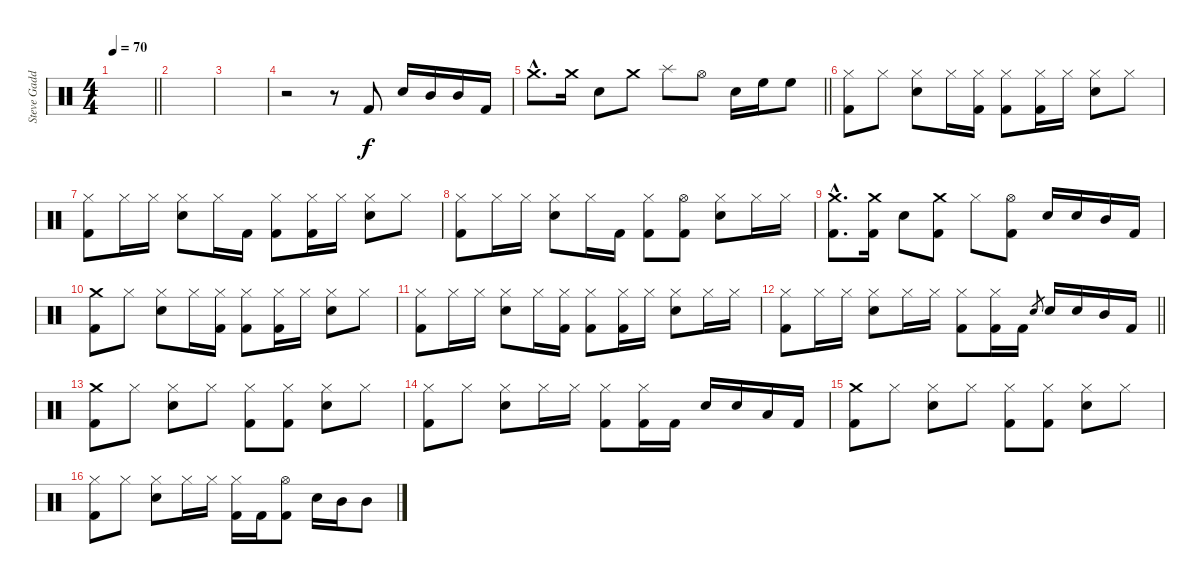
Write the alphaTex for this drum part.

\track ("Steve Gadd Drums" "Steve Gadd") {instrument percussion}
\staff {score}
\articulation defaults
\ts (4 4)
\tempo 70
\clef neutral
\barLineRight lightlight
\ks c
|
|
|
r.2 r.8 "Kick (hit) 2".8 "Snare (hit) 2".16 "Mid Tom (hit)".16 "Mid Tom (hit)".16 "Kick (hit) 2".16 |
\barLineRight lightlight "Crash medium (hit)"{hac}.8{d} "Crash medium (hit)".16 "Snare (hit) 2".8 "Crash medium (hit)".8 "Splash (hit)".8 "Hi-Hat (open)".8 "Snare (hit) 2".16 "High Floor Tom (hit)".16 "High Floor Tom (hit)".8
|
("Hi-Hat (closed)" "Kick (hit) 2").8 "Hi-Hat (closed)".8 ("Hi-Hat (closed)" "Snare (hit) 2").8 "Hi-Hat (closed)".16 ("Hi-Hat (closed)" "Kick (hit) 2").16 ("Hi-Hat (closed)" "Kick (hit) 2").8 ("Hi-Hat (closed)" "Kick (hit) 2").16 "Hi-Hat (closed)".16 ("Hi-Hat (closed)" "Snare (hit) 2").8 "Hi-Hat (closed)".8 |
("Hi-Hat (closed)" "Kick (hit) 2").8 "Hi-Hat (closed)".16 "Hi-Hat (closed)".16 ("Hi-Hat (closed)" "Snare (hit) 2").8 "Hi-Hat (closed)".16 "Kick (hit) 2".16 ("Hi-Hat (closed)" "Kick (hit) 2").8 ("Hi-Hat (closed)" "Kick (hit) 2").16 "Hi-Hat (closed)".16 ("Hi-Hat (closed)" "Snare (hit) 2").8 "Hi-Hat (closed)".8 |
("Hi-Hat (closed)" "Kick (hit) 2").8 "Hi-Hat (closed)".16 "Hi-Hat (closed)".16 ("Hi-Hat (closed)" "Snare (hit) 2").8 "Hi-Hat (closed)".16 "Kick (hit) 2".16 ("Hi-Hat (closed)" "Kick (hit) 2").8 ("Hi-Hat (open)" "Kick (hit) 2").8 ("Hi-Hat (closed)" "Snare (hit) 2").8 "Hi-Hat (closed)".16 "Hi-Hat (closed)".16 |
("Crash medium (hit)"{hac} "Kick (hit) 2"{hac}).8{d} ("Crash medium (hit)" "Kick (hit) 2").16 "Snare (hit) 2".8 ("Crash medium (hit)" "Kick (hit) 2").8 "Hi-Hat (closed)".8 ("Hi-Hat (open)" "Kick (hit) 2").8 "Snare (hit) 2".16 "Snare (hit) 2".16 "Mid Tom (hit)".16 "Kick (hit) 2".16 |
("Crash medium (hit)" "Kick (hit) 2").8 "Hi-Hat (closed)".8 ("Hi-Hat (closed)" "Snare (hit) 2").8 "Hi-Hat (closed)".16 ("Hi-Hat (closed)" "Kick (hit) 2").16 ("Hi-Hat (closed)" "Kick (hit) 2").8 ("Hi-Hat (closed)" "Kick (hit) 2").16 "Hi-Hat (closed)".16 ("Hi-Hat (closed)" "Snare (hit) 2").8 "Hi-Hat (closed)".8 |
("Hi-Hat (closed)" "Kick (hit) 2").8 "Hi-Hat (closed)".16 "Hi-Hat (closed)".16 ("Hi-Hat (closed)" "Snare (hit) 2").8 "Hi-Hat (closed)".16 ("Hi-Hat (closed)" "Kick (hit) 2").16 ("Hi-Hat (closed)" "Kick (hit) 2").8 ("Hi-Hat (closed)" "Kick (hit) 2").16 "Hi-Hat (closed)".16 ("Hi-Hat (closed)" "Snare (hit) 2").8 "Hi-Hat (closed)".16 "Hi-Hat (closed)".16 |
\barLineRight lightlight
("Hi-Hat (closed)" "Kick (hit) 2").8 "Hi-Hat (closed)".16 "Hi-Hat (closed)".16 ("Hi-Hat (closed)" "Snare (hit) 2").8 "Hi-Hat (closed)".16 "Hi-Hat (closed)".16 ("Hi-Hat (closed)" "Kick (hit) 2").8 ("Hi-Hat (closed)" "Kick (hit) 2").16 "Kick (hit) 2".16 "Snare (hit) 2".8{gr} "Snare (hit) 2".16 "Snare (hit) 2".16 "Mid Tom (hit)".16 "Kick (hit) 2".16 |
("Crash medium (hit)" "Kick (hit) 2").8 "Hi-Hat (closed)".8 ("Hi-Hat (closed)" "Snare (hit) 2").8 "Hi-Hat (closed)".8 ("Hi-Hat (closed)" "Kick (hit) 2").8 ("Hi-Hat (closed)" "Kick (hit) 2").8 ("Hi-Hat (closed)" "Snare (hit) 2").8 "Hi-Hat (closed)".8 |
("Hi-Hat (closed)" "Kick (hit) 2").8 "Hi-Hat (closed)".8 ("Hi-Hat (closed)" "Snare (hit) 2").8 "Hi-Hat (closed)".16 "Hi-Hat (closed)".16 ("Hi-Hat (closed)" "Kick (hit) 2").8 ("Hi-Hat (closed)" "Kick (hit) 2").16 "Kick (hit) 2".16 "Snare (hit) 2".16 "Snare (hit) 2".16 "Low Tom (hit)".16 "Kick (hit) 2".16 |
("Crash medium (hit)" "Kick (hit) 2").8 "Hi-Hat (closed)".8 ("Hi-Hat (closed)" "Snare (hit) 2").8 "Hi-Hat (closed)".8 ("Hi-Hat (closed)" "Kick (hit) 2").8 ("Hi-Hat (closed)" "Kick (hit) 2").8 ("Hi-Hat (closed)" "Snare (hit) 2").8 "Hi-Hat (closed)".8 |
("Hi-Hat (closed)" "Kick (hit) 2").8 "Hi-Hat (closed)".8 ("Hi-Hat (closed)" "Snare (hit) 2").8 "Hi-Hat (closed)".16 "Hi-Hat (closed)".16 ("Hi-Hat (closed)" "Kick (hit) 2").16 "Kick (hit) 2".16 ("Hi-Hat (open)" "Kick (hit) 2").8 "Snare (hit) 2".16 "Mid Tom (hit)".16 "Mid Tom (hit)".8
